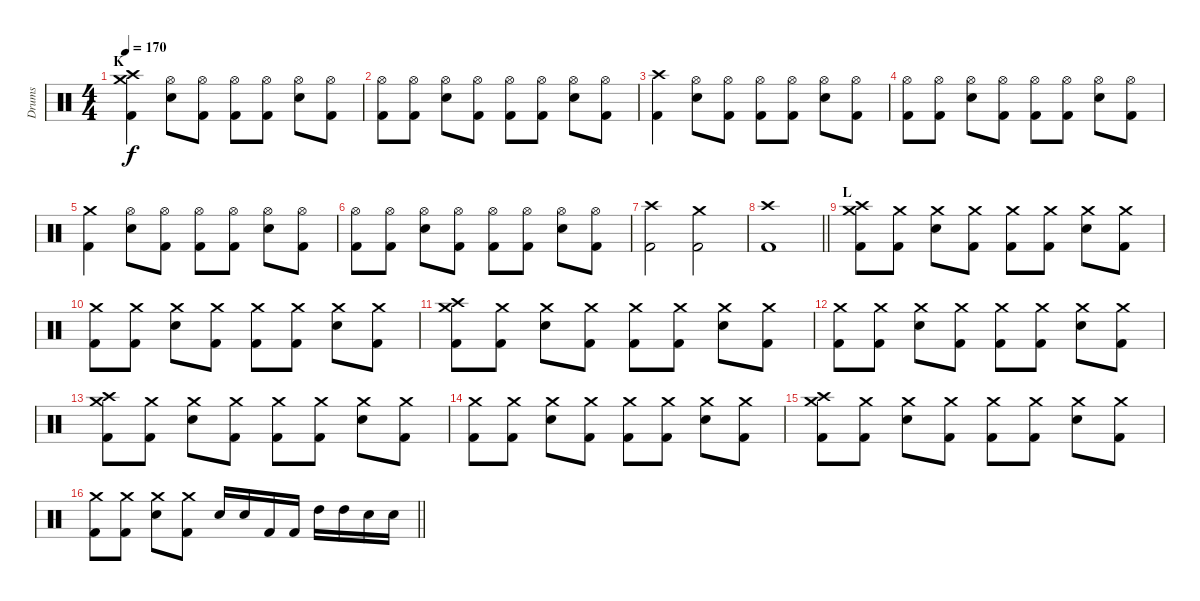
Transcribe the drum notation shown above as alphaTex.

\track ("Drums" "Drums") {instrument percussion}
\staff {score}
\articulation defaults
\ts (4 4)
\section ("" "K")
\tempo 170
\clef neutral
\ks c
("Kick (hit) 2" "Crash high (hit)" "Crash medium (hit)").4{dy f} ("Snare (hit) 2" "Hi-Hat (open)").8 ("Kick (hit) 2" "Hi-Hat (open)").8 ("Kick (hit) 2" "Hi-Hat (open)").8 ("Kick (hit) 2" "Hi-Hat (open)").8 ("Snare (hit) 2" "Hi-Hat (open)").8 ("Kick (hit) 2" "Hi-Hat (open)").8 |
("Kick (hit) 2" "Hi-Hat (open)").8 ("Kick (hit) 2" "Hi-Hat (open)").8 ("Snare (hit) 2" "Hi-Hat (open)").8 ("Kick (hit) 2" "Hi-Hat (open)").8 ("Kick (hit) 2" "Hi-Hat (open)").8 ("Kick (hit) 2" "Hi-Hat (open)").8 ("Snare (hit) 2" "Hi-Hat (open)").8 ("Kick (hit) 2" "Hi-Hat (open)").8 |
("Kick (hit) 2" "Crash high (hit)").4 ("Snare (hit) 2" "Hi-Hat (open)").8 ("Kick (hit) 2" "Hi-Hat (open)").8 ("Kick (hit) 2" "Hi-Hat (open)").8 ("Kick (hit) 2" "Hi-Hat (open)").8 ("Snare (hit) 2" "Hi-Hat (open)").8 ("Kick (hit) 2" "Hi-Hat (open)").8 |
("Kick (hit) 2" "Hi-Hat (open)").8 ("Kick (hit) 2" "Hi-Hat (open)").8 ("Snare (hit) 2" "Hi-Hat (open)").8 ("Kick (hit) 2" "Hi-Hat (open)").8 ("Kick (hit) 2" "Hi-Hat (open)").8 ("Kick (hit) 2" "Hi-Hat (open)").8 ("Snare (hit) 2" "Hi-Hat (open)").8 ("Kick (hit) 2" "Hi-Hat (open)").8 |
("Kick (hit) 2" "Crash medium (hit)").4 ("Snare (hit) 2" "Hi-Hat (open)").8 ("Kick (hit) 2" "Hi-Hat (open)").8 ("Kick (hit) 2" "Hi-Hat (open)").8 ("Kick (hit) 2" "Hi-Hat (open)").8 ("Snare (hit) 2" "Hi-Hat (open)").8 ("Kick (hit) 2" "Hi-Hat (open)").8 |
("Kick (hit) 2" "Hi-Hat (open)").8 ("Kick (hit) 2" "Hi-Hat (open)").8 ("Snare (hit) 2" "Hi-Hat (open)").8 ("Kick (hit) 2" "Hi-Hat (open)").8 ("Kick (hit) 2" "Hi-Hat (open)").8 ("Kick (hit) 2" "Hi-Hat (open)").8 ("Snare (hit) 2" "Hi-Hat (open)").8 ("Kick (hit) 2" "Hi-Hat (open)").8 |
("Kick (hit) 2" "Crash high (hit)").2 ("Kick (hit) 2" "Crash medium (hit)").2 |
\barLineRight lightlight
("Kick (hit) 2" "Crash high (hit)").1 |
\section ("" "L")
("Kick (hit) 2" "Crash high (hit)" "Crash medium (hit)").8 ("Kick (hit) 2" "Crash medium (hit)").8 ("Snare (hit) 2" "Crash medium (hit)").8 ("Kick (hit) 2" "Crash medium (hit)").8 ("Kick (hit) 2" "Crash medium (hit)").8 ("Kick (hit) 2" "Crash medium (hit)").8 ("Snare (hit) 2" "Crash medium (hit)").8 ("Kick (hit) 2" "Crash medium (hit)").8 |
("Kick (hit) 2" "Crash medium (hit)").8 ("Kick (hit) 2" "Crash medium (hit)").8 ("Snare (hit) 2" "Crash medium (hit)").8 ("Kick (hit) 2" "Crash medium (hit)").8 ("Kick (hit) 2" "Crash medium (hit)").8 ("Kick (hit) 2" "Crash medium (hit)").8 ("Snare (hit) 2" "Crash medium (hit)").8 ("Kick (hit) 2" "Crash medium (hit)").8 |
("Kick (hit) 2" "Crash high (hit)" "Crash medium (hit)").8 ("Kick (hit) 2" "Crash medium (hit)").8 ("Snare (hit) 2" "Crash medium (hit)").8 ("Kick (hit) 2" "Crash medium (hit)").8 ("Kick (hit) 2" "Crash medium (hit)").8 ("Kick (hit) 2" "Crash medium (hit)").8 ("Snare (hit) 2" "Crash medium (hit)").8 ("Kick (hit) 2" "Crash medium (hit)").8 |
("Kick (hit) 2" "Crash medium (hit)").8 ("Kick (hit) 2" "Crash medium (hit)").8 ("Snare (hit) 2" "Crash medium (hit)").8 ("Kick (hit) 2" "Crash medium (hit)").8 ("Kick (hit) 2" "Crash medium (hit)").8 ("Kick (hit) 2" "Crash medium (hit)").8 ("Snare (hit) 2" "Crash medium (hit)").8 ("Kick (hit) 2" "Crash medium (hit)").8 |
("Kick (hit) 2" "Crash high (hit)" "Crash medium (hit)").8 ("Kick (hit) 2" "Crash medium (hit)").8 ("Snare (hit) 2" "Crash medium (hit)").8 ("Kick (hit) 2" "Crash medium (hit)").8 ("Kick (hit) 2" "Crash medium (hit)").8 ("Kick (hit) 2" "Crash medium (hit)").8 ("Snare (hit) 2" "Crash medium (hit)").8 ("Kick (hit) 2" "Crash medium (hit)").8 |
("Kick (hit) 2" "Crash medium (hit)").8 ("Kick (hit) 2" "Crash medium (hit)").8 ("Snare (hit) 2" "Crash medium (hit)").8 ("Kick (hit) 2" "Crash medium (hit)").8 ("Kick (hit) 2" "Crash medium (hit)").8 ("Kick (hit) 2" "Crash medium (hit)").8 ("Snare (hit) 2" "Crash medium (hit)").8 ("Kick (hit) 2" "Crash medium (hit)").8 |
("Kick (hit) 2" "Crash high (hit)" "Crash medium (hit)").8 ("Kick (hit) 2" "Crash medium (hit)").8 ("Snare (hit) 2" "Crash medium (hit)").8 ("Kick (hit) 2" "Crash medium (hit)").8 ("Kick (hit) 2" "Crash medium (hit)").8 ("Kick (hit) 2" "Crash medium (hit)").8 ("Snare (hit) 2" "Crash medium (hit)").8 ("Kick (hit) 2" "Crash medium (hit)").8 |
\barLineRight lightlight
("Kick (hit) 2" "Crash medium (hit)").8 ("Kick (hit) 2" "Crash medium (hit)").8 ("Snare (hit) 2" "Crash medium (hit)").8 ("Kick (hit) 2" "Crash medium (hit)").8 "Snare (hit) 2".16 "Snare (hit) 2".16 "Kick (hit) 2".16 "Kick (hit) 2".16 "High Tom (hit)".16 "High Tom (hit)".16 "Snare (hit) 2".16 "Snare (hit) 2".16
